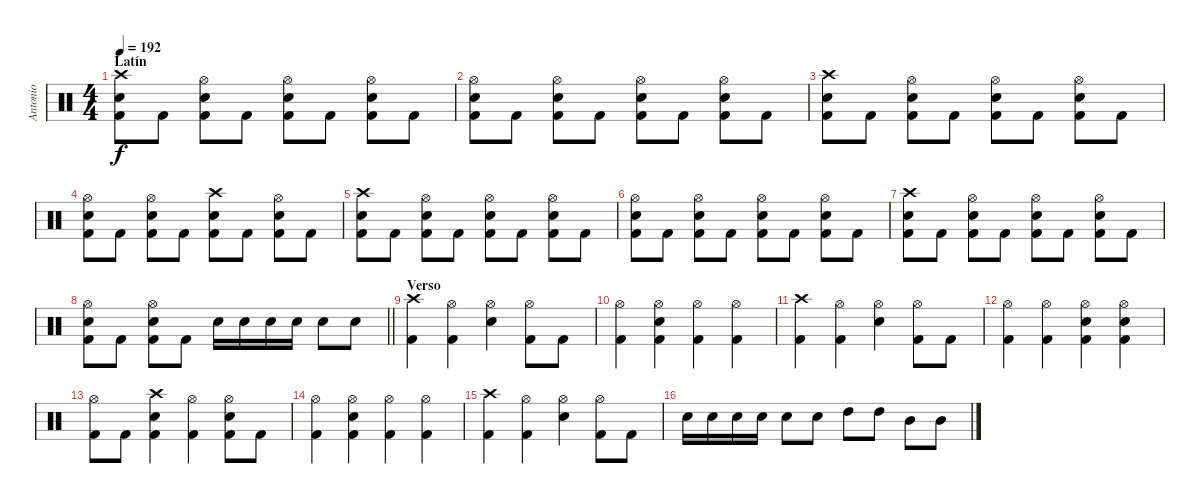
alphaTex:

\track ("Antonio" "Antonio") {instrument percussion}
\staff {score}
\articulation defaults
\ts (4 4)
\section ("" "Latín")
\tempo 192
\clef neutral
\ks c
("Crash high (hit)" "Electric Snare (hit)" "Kick (hit) 2").8{dy f} "Kick (hit) 2".8 ("Hi-Hat (open)" "Electric Snare (hit)" "Kick (hit) 2").8 "Kick (hit) 2".8 ("Hi-Hat (open)" "Electric Snare (hit)" "Kick (hit) 2").8 "Kick (hit) 2".8 ("Hi-Hat (open)" "Electric Snare (hit)" "Kick (hit) 2").8 "Kick (hit) 2".8 |
("Hi-Hat (open)" "Electric Snare (hit)" "Kick (hit) 2").8 "Kick (hit) 2".8 ("Hi-Hat (open)" "Electric Snare (hit)" "Kick (hit) 2").8 "Kick (hit) 2".8 ("Hi-Hat (open)" "Electric Snare (hit)" "Kick (hit) 2").8 "Kick (hit) 2".8 ("Hi-Hat (open)" "Electric Snare (hit)" "Kick (hit) 2").8 "Kick (hit) 2".8 |
("Crash high (hit)" "Electric Snare (hit)" "Kick (hit) 2").8 "Kick (hit) 2".8 ("Hi-Hat (open)" "Electric Snare (hit)" "Kick (hit) 2").8 "Kick (hit) 2".8 ("Hi-Hat (open)" "Electric Snare (hit)" "Kick (hit) 2").8 "Kick (hit) 2".8 ("Hi-Hat (open)" "Electric Snare (hit)" "Kick (hit) 2").8 "Kick (hit) 2".8 |
("Hi-Hat (open)" "Electric Snare (hit)" "Kick (hit) 2").8 "Kick (hit) 2".8 ("Hi-Hat (open)" "Electric Snare (hit)" "Kick (hit) 2").8 "Kick (hit) 2".8 ("Crash high (hit)" "Electric Snare (hit)" "Kick (hit) 2").8 "Kick (hit) 2".8 ("Hi-Hat (open)" "Electric Snare (hit)" "Kick (hit) 2").8 "Kick (hit) 2".8 |
("Crash high (hit)" "Electric Snare (hit)" "Kick (hit) 2").8 "Kick (hit) 2".8 ("Hi-Hat (open)" "Electric Snare (hit)" "Kick (hit) 2").8 "Kick (hit) 2".8 ("Hi-Hat (open)" "Electric Snare (hit)" "Kick (hit) 2").8 "Kick (hit) 2".8 ("Hi-Hat (open)" "Electric Snare (hit)" "Kick (hit) 2").8 "Kick (hit) 2".8 |
("Hi-Hat (open)" "Electric Snare (hit)" "Kick (hit) 2").8 "Kick (hit) 2".8 ("Hi-Hat (open)" "Electric Snare (hit)" "Kick (hit) 2").8 "Kick (hit) 2".8 ("Hi-Hat (open)" "Electric Snare (hit)" "Kick (hit) 2").8 "Kick (hit) 2".8 ("Hi-Hat (open)" "Electric Snare (hit)" "Kick (hit) 2").8 "Kick (hit) 2".8 |
("Crash high (hit)" "Electric Snare (hit)" "Kick (hit) 2").8 "Kick (hit) 2".8 ("Hi-Hat (open)" "Electric Snare (hit)" "Kick (hit) 2").8 "Kick (hit) 2".8 ("Hi-Hat (open)" "Electric Snare (hit)" "Kick (hit) 2").8 "Kick (hit) 2".8 ("Hi-Hat (open)" "Electric Snare (hit)" "Kick (hit) 2").8 "Kick (hit) 2".8 |
\barLineRight lightlight
("Hi-Hat (open)" "Electric Snare (hit)" "Kick (hit) 2").8 "Kick (hit) 2".8 ("Hi-Hat (open)" "Electric Snare (hit)" "Kick (hit) 2").8 "Kick (hit) 2".8 "Electric Snare (hit)".16 "Electric Snare (hit)".16 "Electric Snare (hit)".16 "Electric Snare (hit)".16 "Electric Snare (hit)".8 "Electric Snare (hit)".8 |
\section ("" "Verso")
("Crash high (hit)" "Kick (hit) 2").4 ("Hi-Hat (open)" "Kick (hit) 2").4 ("Hi-Hat (open)" "Electric Snare (hit)").4 ("Hi-Hat (open)" "Kick (hit) 2").8 "Kick (hit) 2".8 |
("Hi-Hat (open)" "Kick (hit) 2").4 ("Hi-Hat (open)" "Electric Snare (hit)" "Kick (hit) 2").4 ("Hi-Hat (open)" "Kick (hit) 2").4 ("Hi-Hat (open)" "Kick (hit) 2").4 |
("Crash high (hit)" "Kick (hit) 2").4 ("Hi-Hat (open)" "Kick (hit) 2").4 ("Hi-Hat (open)" "Electric Snare (hit)").4 ("Hi-Hat (open)" "Kick (hit) 2").8 "Kick (hit) 2".8 |
("Hi-Hat (open)" "Kick (hit) 2").4 ("Hi-Hat (open)" "Kick (hit) 2").4 ("Hi-Hat (open)" "Electric Snare (hit)" "Kick (hit) 2").4 ("Hi-Hat (open)" "Electric Snare (hit)" "Kick (hit) 2").4 |
("Hi-Hat (open)" "Kick (hit) 2").8 "Kick (hit) 2".8 ("Crash high (hit)" "Electric Snare (hit)" "Kick (hit) 2").4 ("Hi-Hat (open)" "Kick (hit) 2").4 ("Hi-Hat (open)" "Electric Snare (hit)" "Kick (hit) 2").8 "Kick (hit) 2".8 |
("Hi-Hat (open)" "Kick (hit) 2").4 ("Hi-Hat (open)" "Electric Snare (hit)" "Kick (hit) 2").4 ("Hi-Hat (open)" "Kick (hit) 2").4 ("Hi-Hat (open)" "Kick (hit) 2").4 |
("Crash high (hit)" "Kick (hit) 2").4 ("Hi-Hat (open)" "Kick (hit) 2").4 ("Hi-Hat (open)" "Electric Snare (hit)").4 ("Hi-Hat (open)" "Kick (hit) 2").8 "Kick (hit) 2".8 |
"Electric Snare (hit)".16 "Electric Snare (hit)".16 "Electric Snare (hit)".16 "Electric Snare (hit)".16 "Electric Snare (hit)".8 "Electric Snare (hit)".8 "High Tom (hit)".8 "High Tom (hit)".8 "Mid Tom (hit)".8 "Mid Tom (hit)".8
